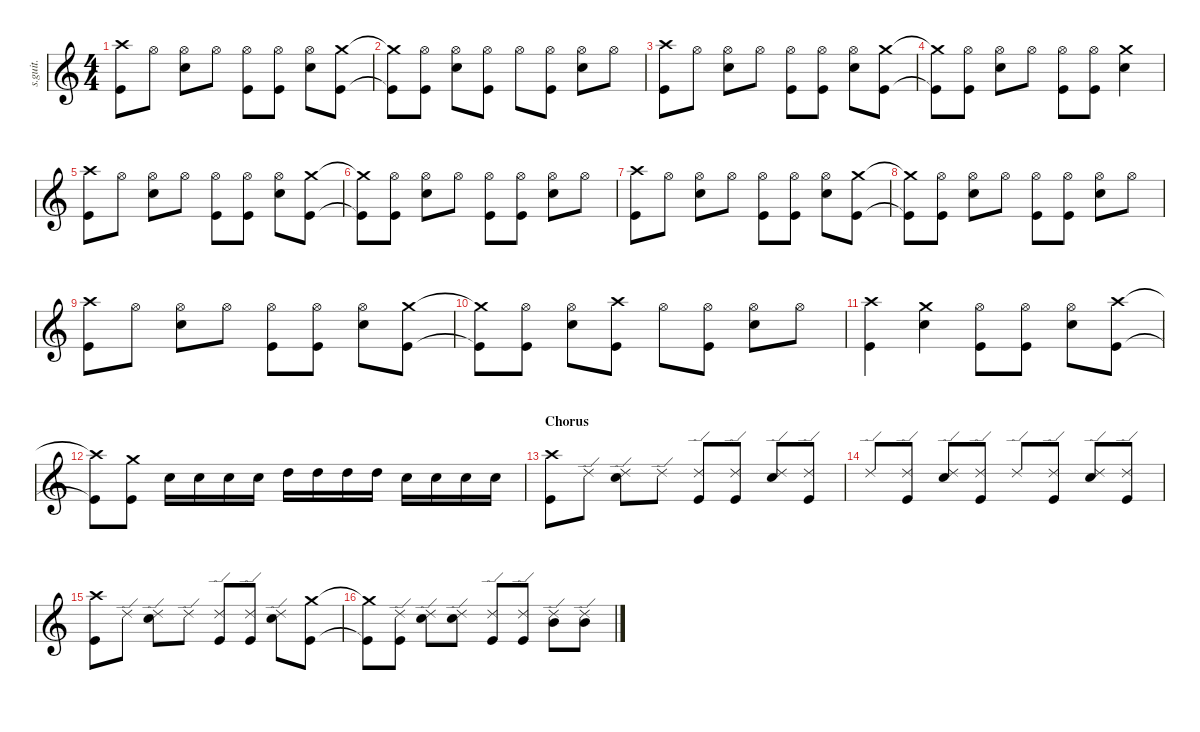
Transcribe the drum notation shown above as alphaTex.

\defaultSystemsLayout 4
\hideDynamics
\bracketExtendMode nobrackets
\track ("Tre Cool" "s.guit.") {instrument percussion}
\staff {score}
\articulation defaults
\ts (4 4)
\tempo (175 hide)
\clef g2
\ks c
("Crash high (hit)" "Kick (hit)").8{lyrics (0 "") lyrics (1 "") lyrics (2 "") lyrics (3 "") lyrics (4 "") dy f} "Hi-Hat (open)".8{lyrics (0 "") lyrics (1 "") lyrics (2 "") lyrics (3 "") lyrics (4 "")} ("Hi-Hat (open)" "Snare (hit) 2").8{lyrics (0 "") lyrics (1 "") lyrics (2 "") lyrics (3 "") lyrics (4 "")} "Hi-Hat (open)".8{lyrics (0 "") lyrics (1 "") lyrics (2 "") lyrics (3 "") lyrics (4 "")} ("Hi-Hat (open)" "Kick (hit)").8{lyrics (0 "") lyrics (1 "") lyrics (2 "") lyrics (3 "") lyrics (4 "")} ("Hi-Hat (open)" "Kick (hit)").8{lyrics (0 "") lyrics (1 "") lyrics (2 "") lyrics (3 "") lyrics (4 "")} ("Hi-Hat (open)" "Snare (hit) 2").8{lyrics (0 "") lyrics (1 "") lyrics (2 "") lyrics (3 "") lyrics (4 "")} ("Crash medium (hit)" "Kick (hit)").8{lyrics (0 "") lyrics (1 "") lyrics (2 "") lyrics (3 "") lyrics (4 "")} |
("Crash medium (hit)"{t} "Kick (hit)"{t}).8{lyrics (0 "") lyrics (1 "") lyrics (2 "") lyrics (3 "") lyrics (4 "")} ("Hi-Hat (open)" "Kick (hit)").8{lyrics (0 "") lyrics (1 "") lyrics (2 "") lyrics (3 "") lyrics (4 "")} ("Hi-Hat (open)" "Snare (hit) 2").8{lyrics (0 "") lyrics (1 "") lyrics (2 "") lyrics (3 "") lyrics (4 "")} ("Hi-Hat (open)" "Kick (hit)").8{lyrics (0 "") lyrics (1 "") lyrics (2 "") lyrics (3 "") lyrics (4 "")} "Hi-Hat (open)".8{lyrics (0 "") lyrics (1 "") lyrics (2 "") lyrics (3 "") lyrics (4 "")} ("Hi-Hat (open)" "Kick (hit)").8{lyrics (0 "") lyrics (1 "") lyrics (2 "") lyrics (3 "") lyrics (4 "")} ("Hi-Hat (open)" "Snare (hit) 2").8{lyrics (0 "") lyrics (1 "") lyrics (2 "") lyrics (3 "") lyrics (4 "")} "Hi-Hat (open)".8{lyrics (0 "") lyrics (1 "") lyrics (2 "") lyrics (3 "") lyrics (4 "")} |
("Crash high (hit)" "Kick (hit)").8{lyrics (0 "") lyrics (1 "") lyrics (2 "") lyrics (3 "") lyrics (4 "")} "Hi-Hat (open)".8{lyrics (0 "") lyrics (1 "") lyrics (2 "") lyrics (3 "") lyrics (4 "")} ("Hi-Hat (open)" "Snare (hit) 2").8{lyrics (0 "") lyrics (1 "") lyrics (2 "") lyrics (3 "") lyrics (4 "")} "Hi-Hat (open)".8{lyrics (0 "") lyrics (1 "") lyrics (2 "") lyrics (3 "") lyrics (4 "")} ("Hi-Hat (open)" "Kick (hit)").8{lyrics (0 "") lyrics (1 "") lyrics (2 "") lyrics (3 "") lyrics (4 "")} ("Hi-Hat (open)" "Kick (hit)").8{lyrics (0 "") lyrics (1 "") lyrics (2 "") lyrics (3 "") lyrics (4 "")} ("Hi-Hat (open)" "Snare (hit) 2").8{lyrics (0 "") lyrics (1 "") lyrics (2 "") lyrics (3 "") lyrics (4 "")} ("Crash medium (hit)" "Kick (hit)").8{lyrics (0 "") lyrics (1 "") lyrics (2 "") lyrics (3 "") lyrics (4 "")} |
("Crash medium (hit)"{t} "Kick (hit)"{t}).8{lyrics (0 "") lyrics (1 "") lyrics (2 "") lyrics (3 "") lyrics (4 "")} ("Hi-Hat (open)" "Kick (hit)").8{lyrics (0 "") lyrics (1 "") lyrics (2 "") lyrics (3 "") lyrics (4 "")} ("Hi-Hat (open)" "Snare (hit) 2").8{lyrics (0 "") lyrics (1 "") lyrics (2 "") lyrics (3 "") lyrics (4 "")} "Hi-Hat (open)".8{lyrics (0 "") lyrics (1 "") lyrics (2 "") lyrics (3 "") lyrics (4 "")} ("Hi-Hat (open)" "Kick (hit)").8{lyrics (0 "") lyrics (1 "") lyrics (2 "") lyrics (3 "") lyrics (4 "")} ("Hi-Hat (open)" "Kick (hit)").8{lyrics (0 "") lyrics (1 "") lyrics (2 "") lyrics (3 "") lyrics (4 "")} ("Crash medium (hit)" "Snare (hit) 2").4{lyrics (0 "") lyrics (1 "") lyrics (2 "") lyrics (3 "") lyrics (4 "")} |
("Crash high (hit)" "Kick (hit)").8{lyrics (0 "") lyrics (1 "") lyrics (2 "") lyrics (3 "") lyrics (4 "")} "Hi-Hat (open)".8{lyrics (0 "") lyrics (1 "") lyrics (2 "") lyrics (3 "") lyrics (4 "")} ("Hi-Hat (open)" "Snare (hit) 2").8{lyrics (0 "") lyrics (1 "") lyrics (2 "") lyrics (3 "") lyrics (4 "")} "Hi-Hat (open)".8{lyrics (0 "") lyrics (1 "") lyrics (2 "") lyrics (3 "") lyrics (4 "")} ("Hi-Hat (open)" "Kick (hit)").8{lyrics (0 "") lyrics (1 "") lyrics (2 "") lyrics (3 "") lyrics (4 "")} ("Hi-Hat (open)" "Kick (hit)").8{lyrics (0 "") lyrics (1 "") lyrics (2 "") lyrics (3 "") lyrics (4 "")} ("Hi-Hat (open)" "Snare (hit) 2").8{lyrics (0 "") lyrics (1 "") lyrics (2 "") lyrics (3 "") lyrics (4 "")} ("Crash medium (hit)" "Kick (hit)").8{lyrics (0 "") lyrics (1 "") lyrics (2 "") lyrics (3 "") lyrics (4 "")} |
("Crash medium (hit)"{t} "Kick (hit)"{t}).8{lyrics (0 "") lyrics (1 "") lyrics (2 "") lyrics (3 "") lyrics (4 "")} ("Hi-Hat (open)" "Kick (hit)").8{lyrics (0 "") lyrics (1 "") lyrics (2 "") lyrics (3 "") lyrics (4 "")} ("Hi-Hat (open)" "Snare (hit) 2").8{lyrics (0 "") lyrics (1 "") lyrics (2 "") lyrics (3 "") lyrics (4 "")} "Hi-Hat (open)".8{lyrics (0 "") lyrics (1 "") lyrics (2 "") lyrics (3 "") lyrics (4 "")} ("Hi-Hat (open)" "Kick (hit)").8{lyrics (0 "") lyrics (1 "") lyrics (2 "") lyrics (3 "") lyrics (4 "")} ("Hi-Hat (open)" "Kick (hit)").8{lyrics (0 "") lyrics (1 "") lyrics (2 "") lyrics (3 "") lyrics (4 "")} ("Hi-Hat (open)" "Snare (hit) 2").8{lyrics (0 "") lyrics (1 "") lyrics (2 "") lyrics (3 "") lyrics (4 "")} "Hi-Hat (open)".8{lyrics (0 "") lyrics (1 "") lyrics (2 "") lyrics (3 "") lyrics (4 "")} |
("Crash high (hit)" "Kick (hit)").8{lyrics (0 "") lyrics (1 "") lyrics (2 "") lyrics (3 "") lyrics (4 "")} "Hi-Hat (open)".8{lyrics (0 "") lyrics (1 "") lyrics (2 "") lyrics (3 "") lyrics (4 "")} ("Hi-Hat (open)" "Snare (hit) 2").8{lyrics (0 "") lyrics (1 "") lyrics (2 "") lyrics (3 "") lyrics (4 "")} "Hi-Hat (open)".8{lyrics (0 "") lyrics (1 "") lyrics (2 "") lyrics (3 "") lyrics (4 "")} ("Hi-Hat (open)" "Kick (hit)").8{lyrics (0 "") lyrics (1 "") lyrics (2 "") lyrics (3 "") lyrics (4 "")} ("Hi-Hat (open)" "Kick (hit)").8{lyrics (0 "") lyrics (1 "") lyrics (2 "") lyrics (3 "") lyrics (4 "")} ("Hi-Hat (open)" "Snare (hit) 2").8{lyrics (0 "") lyrics (1 "") lyrics (2 "") lyrics (3 "") lyrics (4 "")} ("Crash medium (hit)" "Kick (hit)").8{lyrics (0 "") lyrics (1 "") lyrics (2 "") lyrics (3 "") lyrics (4 "")} |
("Crash medium (hit)"{t} "Kick (hit)"{t}).8{lyrics (0 "") lyrics (1 "") lyrics (2 "") lyrics (3 "") lyrics (4 "")} ("Hi-Hat (open)" "Kick (hit)").8{lyrics (0 "") lyrics (1 "") lyrics (2 "") lyrics (3 "") lyrics (4 "")} ("Hi-Hat (open)" "Snare (hit) 2").8{lyrics (0 "") lyrics (1 "") lyrics (2 "") lyrics (3 "") lyrics (4 "")} "Hi-Hat (open)".8{lyrics (0 "") lyrics (1 "") lyrics (2 "") lyrics (3 "") lyrics (4 "")} ("Hi-Hat (open)" "Kick (hit)").8{lyrics (0 "") lyrics (1 "") lyrics (2 "") lyrics (3 "") lyrics (4 "")} ("Hi-Hat (open)" "Kick (hit)").8{lyrics (0 "") lyrics (1 "") lyrics (2 "") lyrics (3 "") lyrics (4 "")} ("Hi-Hat (open)" "Snare (hit) 2").8{lyrics (0 "") lyrics (1 "") lyrics (2 "") lyrics (3 "") lyrics (4 "")} "Hi-Hat (open)".8{lyrics (0 "") lyrics (1 "") lyrics (2 "") lyrics (3 "") lyrics (4 "")} |
("Crash high (hit)" "Kick (hit)").8{lyrics (0 "") lyrics (1 "") lyrics (2 "") lyrics (3 "") lyrics (4 "")} "Hi-Hat (open)".8{lyrics (0 "") lyrics (1 "") lyrics (2 "") lyrics (3 "") lyrics (4 "")} ("Hi-Hat (open)" "Snare (hit) 2").8{lyrics (0 "") lyrics (1 "") lyrics (2 "") lyrics (3 "") lyrics (4 "")} "Hi-Hat (open)".8{lyrics (0 "") lyrics (1 "") lyrics (2 "") lyrics (3 "") lyrics (4 "")} ("Hi-Hat (open)" "Kick (hit)").8{lyrics (0 "") lyrics (1 "") lyrics (2 "") lyrics (3 "") lyrics (4 "")} ("Hi-Hat (open)" "Kick (hit)").8{lyrics (0 "") lyrics (1 "") lyrics (2 "") lyrics (3 "") lyrics (4 "")} ("Hi-Hat (open)" "Snare (hit) 2").8{lyrics (0 "") lyrics (1 "") lyrics (2 "") lyrics (3 "") lyrics (4 "")} ("Crash medium (hit)" "Kick (hit)").8{lyrics (0 "") lyrics (1 "") lyrics (2 "") lyrics (3 "") lyrics (4 "")} |
("Crash medium (hit)"{t} "Kick (hit)"{t}).8{lyrics (0 "") lyrics (1 "") lyrics (2 "") lyrics (3 "") lyrics (4 "")} ("Hi-Hat (open)" "Kick (hit)").8{lyrics (0 "") lyrics (1 "") lyrics (2 "") lyrics (3 "") lyrics (4 "")} ("Hi-Hat (open)" "Snare (hit) 2").8{lyrics (0 "") lyrics (1 "") lyrics (2 "") lyrics (3 "") lyrics (4 "")} ("Crash high (hit)" "Kick (hit)").8{lyrics (0 "") lyrics (1 "") lyrics (2 "") lyrics (3 "") lyrics (4 "")} "Hi-Hat (open)".8{lyrics (0 "") lyrics (1 "") lyrics (2 "") lyrics (3 "") lyrics (4 "")} ("Hi-Hat (open)" "Kick (hit)").8{lyrics (0 "") lyrics (1 "") lyrics (2 "") lyrics (3 "") lyrics (4 "")} ("Hi-Hat (open)" "Snare (hit) 2").8{lyrics (0 "") lyrics (1 "") lyrics (2 "") lyrics (3 "") lyrics (4 "")} "Hi-Hat (open)".8{lyrics (0 "") lyrics (1 "") lyrics (2 "") lyrics (3 "") lyrics (4 "")} |
("Crash high (hit)" "Kick (hit)").4{lyrics (0 "") lyrics (1 "") lyrics (2 "") lyrics (3 "") lyrics (4 "")} ("Crash medium (hit)" "Snare (hit) 2").4{lyrics (0 "") lyrics (1 "") lyrics (2 "") lyrics (3 "") lyrics (4 "")} ("Hi-Hat (open)" "Kick (hit)").8{lyrics (0 "") lyrics (1 "") lyrics (2 "") lyrics (3 "") lyrics (4 "")} ("Hi-Hat (open)" "Kick (hit)").8{lyrics (0 "") lyrics (1 "") lyrics (2 "") lyrics (3 "") lyrics (4 "")} ("Hi-Hat (open)" "Snare (hit) 2").8{lyrics (0 "") lyrics (1 "") lyrics (2 "") lyrics (3 "") lyrics (4 "")} ("Crash high (hit)" "Kick (hit)").8{lyrics (0 "") lyrics (1 "") lyrics (2 "") lyrics (3 "") lyrics (4 "")} |
("Crash high (hit)"{t} "Kick (hit)"{t}).8{lyrics (0 "") lyrics (1 "") lyrics (2 "") lyrics (3 "") lyrics (4 "")} ("Crash medium (hit)" "Kick (hit)").8{lyrics (0 "") lyrics (1 "") lyrics (2 "") lyrics (3 "") lyrics (4 "")} "Snare (hit) 2".16{lyrics (0 "") lyrics (1 "") lyrics (2 "") lyrics (3 "") lyrics (4 "")} "Snare (hit) 2".16{lyrics (0 "") lyrics (1 "") lyrics (2 "") lyrics (3 "") lyrics (4 "")} "Snare (hit) 2".16{lyrics (0 "") lyrics (1 "") lyrics (2 "") lyrics (3 "") lyrics (4 "")} "Snare (hit) 2".16{lyrics (0 "") lyrics (1 "") lyrics (2 "") lyrics (3 "") lyrics (4 "")} "High Tom (hit)".16{lyrics (0 "") lyrics (1 "") lyrics (2 "") lyrics (3 "") lyrics (4 "") dy fff} "High Tom (hit)".16{lyrics (0 "") lyrics (1 "") lyrics (2 "") lyrics (3 "") lyrics (4 "")} "High Tom (hit)".16{lyrics (0 "") lyrics (1 "") lyrics (2 "") lyrics (3 "") lyrics (4 "")} "High Tom (hit)".16{lyrics (0 "") lyrics (1 "") lyrics (2 "") lyrics (3 "") lyrics (4 "")} "Snare (hit) 2".16{lyrics (0 "") lyrics (1 "") lyrics (2 "") lyrics (3 "") lyrics (4 "") dy f} "Snare (hit) 2".16{lyrics (0 "") lyrics (1 "") lyrics (2 "") lyrics (3 "") lyrics (4 "")} "Snare (hit) 2".16{lyrics (0 "") lyrics (1 "") lyrics (2 "") lyrics (3 "") lyrics (4 "")} "Snare (hit) 2".16{lyrics (0 "") lyrics (1 "") lyrics (2 "") lyrics (3 "") lyrics (4 "")} |
\section ("" "Chorus")
("Crash high (hit)" "Kick (hit)").8{lyrics (0 "") lyrics (1 "") lyrics (2 "") lyrics (3 "") lyrics (4 "")} "Ride (edge) 2".8{lyrics (0 "") lyrics (1 "") lyrics (2 "") lyrics (3 "") lyrics (4 "")} ("Ride (edge) 2" "Snare (hit) 2").8{lyrics (0 "") lyrics (1 "") lyrics (2 "") lyrics (3 "") lyrics (4 "")} "Ride (edge) 2".8{lyrics (0 "") lyrics (1 "") lyrics (2 "") lyrics (3 "") lyrics (4 "")} ("Ride (edge) 2" "Kick (hit)").8{lyrics (0 "") lyrics (1 "") lyrics (2 "") lyrics (3 "") lyrics (4 "")} ("Ride (edge) 2" "Kick (hit)").8{lyrics (0 "") lyrics (1 "") lyrics (2 "") lyrics (3 "") lyrics (4 "")} ("Ride (edge) 2" "Snare (hit) 2").8{lyrics (0 "") lyrics (1 "") lyrics (2 "") lyrics (3 "") lyrics (4 "")} ("Ride (edge) 2" "Kick (hit)").8{lyrics (0 "") lyrics (1 "") lyrics (2 "") lyrics (3 "") lyrics (4 "")} |
"Ride (edge) 2".8{lyrics (0 "") lyrics (1 "") lyrics (2 "") lyrics (3 "") lyrics (4 "")} ("Ride (edge) 2" "Kick (hit)").8{lyrics (0 "") lyrics (1 "") lyrics (2 "") lyrics (3 "") lyrics (4 "")} ("Ride (edge) 2" "Snare (hit) 2").8{lyrics (0 "") lyrics (1 "") lyrics (2 "") lyrics (3 "") lyrics (4 "")} ("Ride (edge) 2" "Kick (hit)").8{lyrics (0 "") lyrics (1 "") lyrics (2 "") lyrics (3 "") lyrics (4 "")} "Ride (edge) 2".8{lyrics (0 "") lyrics (1 "") lyrics (2 "") lyrics (3 "") lyrics (4 "")} ("Ride (edge) 2" "Kick (hit)").8{lyrics (0 "") lyrics (1 "") lyrics (2 "") lyrics (3 "") lyrics (4 "")} ("Ride (edge) 2" "Snare (hit) 2").8{lyrics (0 "") lyrics (1 "") lyrics (2 "") lyrics (3 "") lyrics (4 "")} ("Ride (edge) 2" "Kick (hit)").8{lyrics (0 "") lyrics (1 "") lyrics (2 "") lyrics (3 "") lyrics (4 "")} |
("Crash high (hit)" "Kick (hit)").8{lyrics (0 "") lyrics (1 "") lyrics (2 "") lyrics (3 "") lyrics (4 "")} "Ride (edge) 2".8{lyrics (0 "") lyrics (1 "") lyrics (2 "") lyrics (3 "") lyrics (4 "")} ("Ride (edge) 2" "Snare (hit) 2").8{lyrics (0 "") lyrics (1 "") lyrics (2 "") lyrics (3 "") lyrics (4 "")} "Ride (edge) 2".8{lyrics (0 "") lyrics (1 "") lyrics (2 "") lyrics (3 "") lyrics (4 "")} ("Ride (edge) 2" "Kick (hit)").8{lyrics (0 "") lyrics (1 "") lyrics (2 "") lyrics (3 "") lyrics (4 "")} ("Ride (edge) 2" "Kick (hit)").8{lyrics (0 "") lyrics (1 "") lyrics (2 "") lyrics (3 "") lyrics (4 "")} ("Ride (edge) 2" "Snare (hit) 2").8{lyrics (0 "") lyrics (1 "") lyrics (2 "") lyrics (3 "") lyrics (4 "")} ("Crash medium (hit)" "Kick (hit)").8{lyrics (0 "") lyrics (1 "") lyrics (2 "") lyrics (3 "") lyrics (4 "")} |
("Crash medium (hit)"{t} "Kick (hit)"{t}).8{lyrics (0 "") lyrics (1 "") lyrics (2 "") lyrics (3 "") lyrics (4 "")} ("Ride (edge) 2" "Kick (hit)").8{lyrics (0 "") lyrics (1 "") lyrics (2 "") lyrics (3 "") lyrics (4 "")} ("Ride (edge) 2" "Snare (hit) 2").8{lyrics (0 "") lyrics (1 "") lyrics (2 "") lyrics (3 "") lyrics (4 "")} ("Ride (edge) 2" "Snare (hit) 2").8{lyrics (0 "") lyrics (1 "") lyrics (2 "") lyrics (3 "") lyrics (4 "")} ("Ride (edge) 2" "Kick (hit)").8{lyrics (0 "") lyrics (1 "") lyrics (2 "") lyrics (3 "") lyrics (4 "")} ("Ride (edge) 2" "Kick (hit)").8{lyrics (0 "") lyrics (1 "") lyrics (2 "") lyrics (3 "") lyrics (4 "")} ("Ride (edge) 2" "Mid Tom (hit)").8{lyrics (0 "") lyrics (1 "") lyrics (2 "") lyrics (3 "") lyrics (4 "")} ("Ride (edge) 2" "Mid Tom (hit)").8{lyrics (0 "") lyrics (1 "") lyrics (2 "") lyrics (3 "") lyrics (4 "")}
